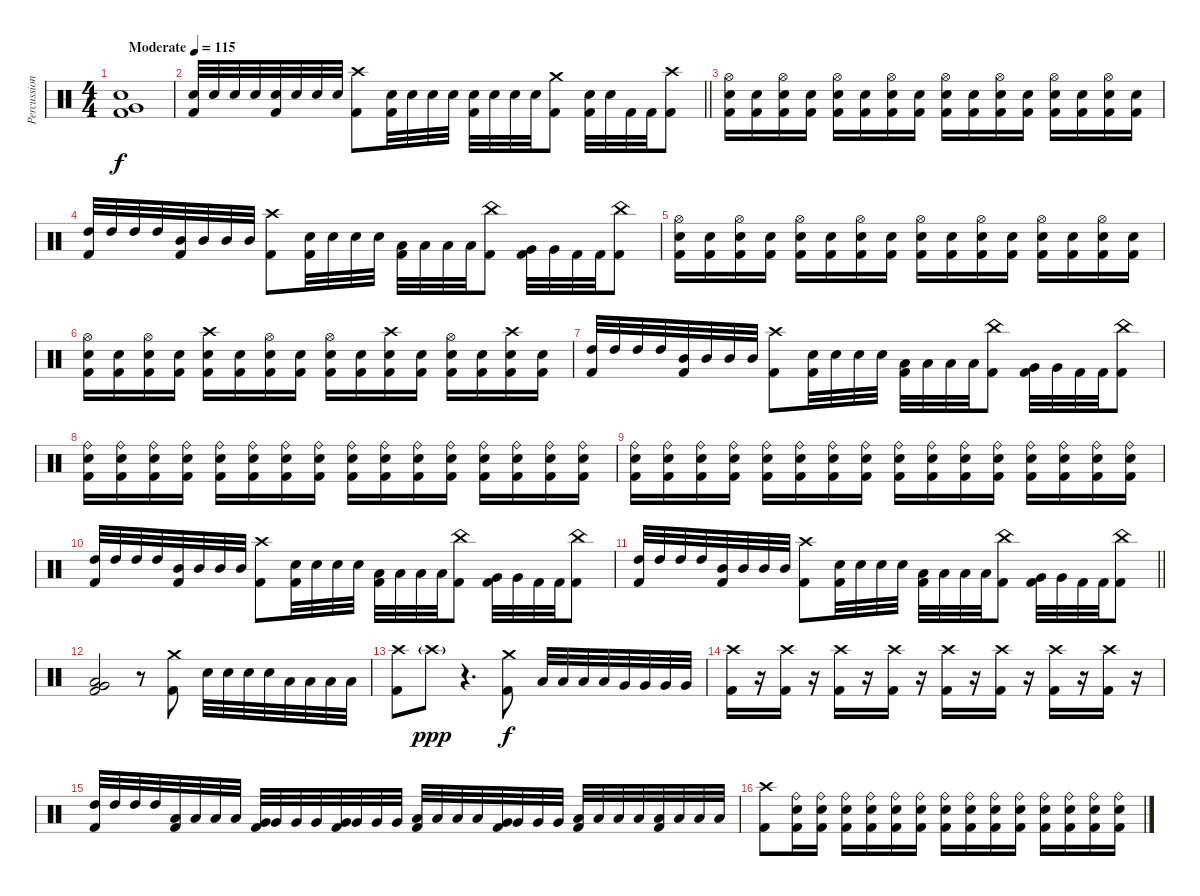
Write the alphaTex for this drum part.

\track ("Percussion" "Percussion") {instrument percussion}
\staff {score}
\articulation defaults
\ts (4 4)
\tempo (115 "Moderate")
\clef neutral
\ks c
("Snare (hit) 2" "Very Low Tom (hit)" "Kick (hit) 2").1{dy f} |
\barLineRight lightlight
("Snare (hit) 2" "Kick (hit) 2").32 "Snare (hit) 2".32 "Snare (hit) 2".32 "Snare (hit) 2".32 ("Snare (hit) 2" "Kick (hit) 2").32 "Snare (hit) 2".32 "Snare (hit) 2".32 "Snare (hit) 2".32 ("Crash high (hit)" "Kick (hit) 2").8 ("Snare (hit) 2" "Kick (hit) 2").32 "Snare (hit) 2".32 "Snare (hit) 2".32 "Snare (hit) 2".32 ("Snare (hit) 2" "Kick (hit) 2").32 "Snare (hit) 2".32 "Snare (hit) 2".32 "Snare (hit) 2".32 ("Crash medium (hit)" "Kick (hit) 2").8 ("Snare (hit) 2" "Kick (hit) 2").32 "Snare (hit) 2".32 "Kick (hit) 2".32 "Kick (hit) 2".32 ("Crash high (hit)" "Kick (hit) 2").8 |
\section ("" "")
("Hi-Hat (open)" "Snare (hit) 2" "Kick (hit) 2").16 ("Snare (hit) 2" "Kick (hit) 2").16 ("Hi-Hat (open)" "Snare (hit) 2" "Kick (hit) 2").16 ("Snare (hit) 2" "Kick (hit) 2").16 ("Hi-Hat (open)" "Snare (hit) 2" "Kick (hit) 2").16 ("Snare (hit) 2" "Kick (hit) 2").16 ("Hi-Hat (open)" "Snare (hit) 2" "Kick (hit) 2").16 ("Snare (hit) 2" "Kick (hit) 2").16 ("Hi-Hat (open)" "Snare (hit) 2" "Kick (hit) 2").16 ("Snare (hit) 2" "Kick (hit) 2").16 ("Hi-Hat (open)" "Snare (hit) 2" "Kick (hit) 2").16 ("Snare (hit) 2" "Kick (hit) 2").16 ("Hi-Hat (open)" "Snare (hit) 2" "Kick (hit) 2").16 ("Snare (hit) 2" "Kick (hit) 2").16 ("Hi-Hat (open)" "Snare (hit) 2" "Kick (hit) 2").16 ("Snare (hit) 2" "Kick (hit) 2").16 |
("High Tom (hit)" "Kick (hit) 2").32 "High Tom (hit)".32 "High Tom (hit)".32 "High Tom (hit)".32 ("Mid Tom (hit)" "Kick (hit) 2").32 "Mid Tom (hit)".32 "Mid Tom (hit)".32 "Mid Tom (hit)".32 ("Crash high (hit)" "Kick (hit) 2").8 ("Snare (hit) 2" "Kick (hit) 2").32 "Snare (hit) 2".32 "Snare (hit) 2".32 "Snare (hit) 2".32 ("Low Tom (hit)" "Kick (hit) 2").32 "Low Tom (hit)".32 "Low Tom (hit)".32 "Low Tom (hit)".32 ("China (hit)" "Kick (hit) 2").8 ("Very Low Tom (hit)" "Kick (hit) 2").32 "Very Low Tom (hit)".32 "Kick (hit) 2".32 "Kick (hit) 2".32 ("China (hit)" "Kick (hit) 2").8 |
("Hi-Hat (open)" "Snare (hit) 2" "Kick (hit) 2").16 ("Snare (hit) 2" "Kick (hit) 2").16 ("Hi-Hat (open)" "Snare (hit) 2" "Kick (hit) 2").16 ("Snare (hit) 2" "Kick (hit) 2").16 ("Hi-Hat (open)" "Snare (hit) 2" "Kick (hit) 2").16 ("Snare (hit) 2" "Kick (hit) 2").16 ("Hi-Hat (open)" "Snare (hit) 2" "Kick (hit) 2").16 ("Snare (hit) 2" "Kick (hit) 2").16 ("Hi-Hat (open)" "Snare (hit) 2" "Kick (hit) 2").16 ("Snare (hit) 2" "Kick (hit) 2").16 ("Hi-Hat (open)" "Snare (hit) 2" "Kick (hit) 2").16 ("Snare (hit) 2" "Kick (hit) 2").16 ("Hi-Hat (open)" "Snare (hit) 2" "Kick (hit) 2").16 ("Snare (hit) 2" "Kick (hit) 2").16 ("Hi-Hat (open)" "Snare (hit) 2" "Kick (hit) 2").16 ("Snare (hit) 2" "Kick (hit) 2").16 |
("Hi-Hat (open)" "Snare (hit) 2" "Kick (hit) 2").16 ("Snare (hit) 2" "Kick (hit) 2").16 ("Hi-Hat (open)" "Snare (hit) 2" "Kick (hit) 2").16 ("Snare (hit) 2" "Kick (hit) 2").16 ("Crash high (hit)" "Snare (hit) 2" "Kick (hit) 2").16 ("Snare (hit) 2" "Kick (hit) 2").16 ("Hi-Hat (open)" "Snare (hit) 2" "Kick (hit) 2").16 ("Snare (hit) 2" "Kick (hit) 2").16 ("Hi-Hat (open)" "Snare (hit) 2" "Kick (hit) 2").16 ("Snare (hit) 2" "Kick (hit) 2").16 ("Crash high (hit)" "Snare (hit) 2" "Kick (hit) 2").16 ("Snare (hit) 2" "Kick (hit) 2").16 ("Hi-Hat (open)" "Snare (hit) 2" "Kick (hit) 2").16 ("Snare (hit) 2" "Kick (hit) 2").16 ("Crash high (hit)" "Snare (hit) 2" "Kick (hit) 2").16 ("Snare (hit) 2" "Kick (hit) 2").16 |
("High Tom (hit)" "Kick (hit) 2").32 "High Tom (hit)".32 "High Tom (hit)".32 "High Tom (hit)".32 ("Mid Tom (hit)" "Kick (hit) 2").32 "Mid Tom (hit)".32 "Mid Tom (hit)".32 "Mid Tom (hit)".32 ("Crash high (hit)" "Kick (hit) 2").8 ("Snare (hit) 2" "Kick (hit) 2").32 "Snare (hit) 2".32 "Snare (hit) 2".32 "Snare (hit) 2".32 ("Low Tom (hit)" "Kick (hit) 2").32 "Low Tom (hit)".32 "Low Tom (hit)".32 "Low Tom (hit)".32 ("China (hit)" "Kick (hit) 2").8 ("Very Low Tom (hit)" "Kick (hit) 2").32 "Very Low Tom (hit)".32 "Kick (hit) 2".32 "Kick (hit) 2".32 ("China (hit)" "Kick (hit) 2").8 |
("Ride (bell)" "Snare (hit) 2" "Kick (hit) 2").16 ("Ride (bell)" "Snare (hit) 2" "Kick (hit) 2").16 ("Ride (bell)" "Snare (hit) 2" "Kick (hit) 2").16 ("Ride (bell)" "Snare (hit) 2" "Kick (hit) 2").16 ("Ride (bell)" "Snare (hit) 2" "Kick (hit) 2").16 ("Ride (bell)" "Snare (hit) 2" "Kick (hit) 2").16 ("Ride (bell)" "Snare (hit) 2" "Kick (hit) 2").16 ("Ride (bell)" "Snare (hit) 2" "Kick (hit) 2").16 ("Ride (bell)" "Snare (hit) 2" "Kick (hit) 2").16 ("Ride (bell)" "Snare (hit) 2" "Kick (hit) 2").16 ("Ride (bell)" "Snare (hit) 2" "Kick (hit) 2").16 ("Ride (bell)" "Snare (hit) 2" "Kick (hit) 2").16 ("Ride (bell)" "Snare (hit) 2" "Kick (hit) 2").16 ("Ride (bell)" "Snare (hit) 2" "Kick (hit) 2").16 ("Ride (bell)" "Snare (hit) 2" "Kick (hit) 2").16 ("Ride (bell)" "Snare (hit) 2" "Kick (hit) 2").16 |
("Ride (bell)" "Snare (hit) 2" "Kick (hit) 2").16 ("Ride (bell)" "Snare (hit) 2" "Kick (hit) 2").16 ("Ride (bell)" "Snare (hit) 2" "Kick (hit) 2").16 ("Ride (bell)" "Snare (hit) 2" "Kick (hit) 2").16 ("Ride (bell)" "Snare (hit) 2" "Kick (hit) 2").16 ("Ride (bell)" "Snare (hit) 2" "Kick (hit) 2").16 ("Ride (bell)" "Snare (hit) 2" "Kick (hit) 2").16 ("Ride (bell)" "Snare (hit) 2" "Kick (hit) 2").16 ("Ride (bell)" "Snare (hit) 2" "Kick (hit) 2").16 ("Ride (bell)" "Snare (hit) 2" "Kick (hit) 2").16 ("Ride (bell)" "Snare (hit) 2" "Kick (hit) 2").16 ("Ride (bell)" "Snare (hit) 2" "Kick (hit) 2").16 ("Ride (bell)" "Snare (hit) 2" "Kick (hit) 2").16 ("Ride (bell)" "Snare (hit) 2" "Kick (hit) 2").16 ("Ride (bell)" "Snare (hit) 2" "Kick (hit) 2").16 ("Ride (bell)" "Snare (hit) 2" "Kick (hit) 2").16 |
("High Tom (hit)" "Kick (hit) 2").32 "High Tom (hit)".32 "High Tom (hit)".32 "High Tom (hit)".32 ("Mid Tom (hit)" "Kick (hit) 2").32 "Mid Tom (hit)".32 "Mid Tom (hit)".32 "Mid Tom (hit)".32 ("Crash high (hit)" "Kick (hit) 2").8 ("Snare (hit) 2" "Kick (hit) 2").32 "Snare (hit) 2".32 "Snare (hit) 2".32 "Snare (hit) 2".32 ("Low Tom (hit)" "Kick (hit) 2").32 "Low Tom (hit)".32 "Low Tom (hit)".32 "Low Tom (hit)".32 ("China (hit)" "Kick (hit) 2").8 ("Very Low Tom (hit)" "Kick (hit) 2").32 "Very Low Tom (hit)".32 "Kick (hit) 2".32 "Kick (hit) 2".32 ("China (hit)" "Kick (hit) 2").8 |
\barLineRight lightlight
("High Tom (hit)" "Kick (hit) 2").32 "High Tom (hit)".32 "High Tom (hit)".32 "High Tom (hit)".32 ("Mid Tom (hit)" "Kick (hit) 2").32 "Mid Tom (hit)".32 "Mid Tom (hit)".32 "Mid Tom (hit)".32 ("Crash high (hit)" "Kick (hit) 2").8 ("Snare (hit) 2" "Kick (hit) 2").32 "Snare (hit) 2".32 "Snare (hit) 2".32 "Snare (hit) 2".32 ("Low Tom (hit)" "Kick (hit) 2").32 "Low Tom (hit)".32 "Low Tom (hit)".32 "Low Tom (hit)".32 ("China (hit)" "Kick (hit) 2").8 ("Very Low Tom (hit)" "Kick (hit) 2").32 "Very Low Tom (hit)".32 "Kick (hit) 2".32 "Kick (hit) 2".32 ("China (hit)" "Kick (hit) 2").8 |
\section ("" "")
("Low Tom (hit)" "Very Low Tom (hit)" "Kick (hit) 2").2 r.8 ("Crash medium (hit)" "Kick (hit) 2").8 "Snare (hit) 2".32 "Snare (hit) 2".32 "Snare (hit) 2".32 "Snare (hit) 2".32 "Low Tom (hit)".32 "Low Tom (hit)".32 "Low Tom (hit)".32 "Low Tom (hit)".32 |
("Crash high (hit)" "Kick (hit) 2").8 "Crash high (hit)"{g}.8{dy ppp} r.4{d} ("Crash medium (hit)" "Kick (hit) 2").8{dy f} "Low Tom (hit)".32 "Low Tom (hit)".32 "Low Tom (hit)".32 "Low Tom (hit)".32 "Very Low Tom (hit)".32 "Very Low Tom (hit)".32 "Very Low Tom (hit)".32 "Very Low Tom (hit)".32 |
("Crash high (hit)" "Kick (hit) 2").16 r.16 ("Crash high (hit)" "Kick (hit) 2").16 r.16 ("Crash high (hit)" "Kick (hit) 2").16 r.16 ("Crash high (hit)" "Kick (hit) 2").16 r.16 ("Crash high (hit)" "Kick (hit) 2").16 r.16 ("Crash high (hit)" "Kick (hit) 2").16 r.16 ("Crash high (hit)" "Kick (hit) 2").16 r.16 ("Crash high (hit)" "Kick (hit) 2").16 r.16 |
("High Tom (hit)" "Kick (hit) 2").32 "High Tom (hit)".32 "High Tom (hit)".32 "High Tom (hit)".32 ("Low Tom (hit)" "Kick (hit) 2").32 "Low Tom (hit)".32 "Low Tom (hit)".32 "Low Tom (hit)".32 ("Very Low Tom (hit)" "Kick (hit) 2").32 "Very Low Tom (hit)".32 "Very Low Tom (hit)".32 "Very Low Tom (hit)".32 ("Very Low Tom (hit)" "Kick (hit) 2").32 "Very Low Tom (hit)".32 "Very Low Tom (hit)".32 "Very Low Tom (hit)".32 ("Low Tom (hit)" "Kick (hit) 2").32 "Low Tom (hit)".32 "Low Tom (hit)".32 "Low Tom (hit)".32 ("Very Low Tom (hit)" "Kick (hit) 2").32 "Very Low Tom (hit)".32 "Very Low Tom (hit)".32 "Very Low Tom (hit)".32 ("Low Floor Tom (hit)" "Kick (hit) 2").32 "Low Floor Tom (hit)".32 "Low Floor Tom (hit)".32 "Low Floor Tom (hit)".32 ("Low Floor Tom (hit)" "Kick (hit) 2").32 "Low Floor Tom (hit)".32 "Low Floor Tom (hit)".32 "Low Floor Tom (hit)".32 |
("Crash high (hit)" "Kick (hit) 2").8 ("Ride (bell)" "Snare (hit) 2" "Kick (hit) 2").16 ("Ride (bell)" "Snare (hit) 2" "Kick (hit) 2").16 ("Ride (bell)" "Snare (hit) 2" "Kick (hit) 2").16 ("Ride (bell)" "Snare (hit) 2" "Kick (hit) 2").16 ("Ride (bell)" "Snare (hit) 2" "Kick (hit) 2").16 ("Ride (bell)" "Snare (hit) 2" "Kick (hit) 2").16 ("Ride (bell)" "Snare (hit) 2" "Kick (hit) 2").16 ("Ride (bell)" "Snare (hit) 2" "Kick (hit) 2").16 ("Ride (bell)" "Snare (hit) 2" "Kick (hit) 2").16 ("Ride (bell)" "Snare (hit) 2" "Kick (hit) 2").16 ("Ride (bell)" "Snare (hit) 2" "Kick (hit) 2").16 ("Ride (bell)" "Snare (hit) 2" "Kick (hit) 2").16 ("Ride (bell)" "Snare (hit) 2" "Kick (hit) 2").16 ("Ride (bell)" "Snare (hit) 2" "Kick (hit) 2").16
